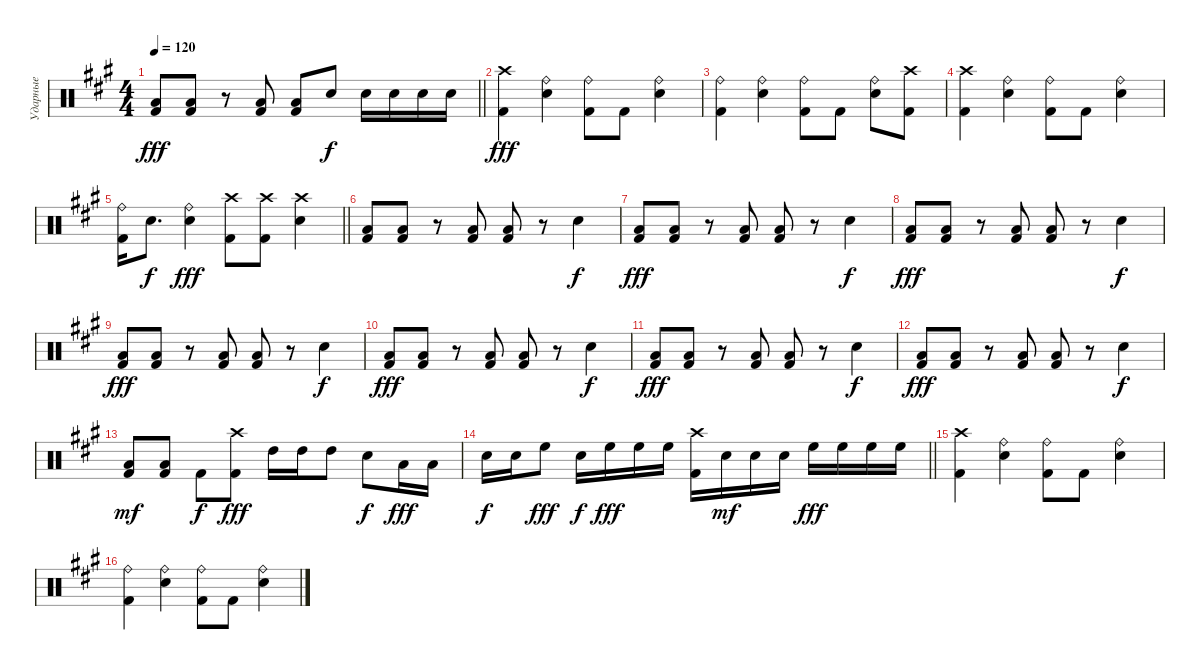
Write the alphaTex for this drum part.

\track ("Ударные" "Ударные") {instrument percussion}
\staff {score}
\articulation defaults
\ts (4 4)
\tempo 120
\clef neutral
\barLineRight lightlight
\ks a
("Kick (hit) 2" "Low Floor Tom (hit)").8{dy fff} ("Kick (hit) 2" "Low Floor Tom (hit)").8 r.8 ("Kick (hit) 2" "Low Floor Tom (hit)").8 ("Kick (hit) 2" "Low Floor Tom (hit)").8 "Snare (hit) 2".8{dy f} "Snare (hit) 2".16 "Snare (hit) 2".16 "Snare (hit) 2".16 "Snare (hit) 2".16 |
("Kick (hit) 2" "Crash high (hit)").4{dy fff} ("Snare (hit) 2" "Ride (bell)").4 ("Kick (hit) 2" "Ride (bell)").8 "Kick (hit) 2".8 ("Snare (hit) 2" "Ride (bell)").4 |
("Kick (hit) 2" "Ride (bell)").4 ("Snare (hit) 2" "Ride (bell)").4 ("Kick (hit) 2" "Ride (bell)").8 "Kick (hit) 2".8 ("Snare (hit) 2" "Ride (bell)").8 ("Kick (hit) 2" "Crash high (hit)").8 |
("Kick (hit) 2" "Crash high (hit)").4 ("Snare (hit) 2" "Ride (bell)").4 ("Kick (hit) 2" "Ride (bell)").8 "Kick (hit) 2".8 ("Snare (hit) 2" "Ride (bell)").4 |
\barLineRight lightlight
("Kick (hit) 2" "Ride (bell)").16 "Snare (hit) 2".8{d dy f} ("Snare (hit) 2" "Ride (bell)").4{dy fff} ("Kick (hit) 2" "Crash high (hit)").8 ("Kick (hit) 2" "Crash high (hit)").8 ("Snare (hit) 2" "Crash high (hit)").4 |
("Kick (hit) 2" "Low Floor Tom (hit)").8 ("Kick (hit) 2" "Low Floor Tom (hit)").8 r.8 ("Kick (hit) 2" "Low Floor Tom (hit)").8 ("Kick (hit) 2" "Low Floor Tom (hit)").8 r.8 "Snare (hit) 2".4{dy f} |
("Kick (hit) 2" "Low Floor Tom (hit)").8{dy fff} ("Kick (hit) 2" "Low Floor Tom (hit)").8 r.8 ("Kick (hit) 2" "Low Floor Tom (hit)").8 ("Kick (hit) 2" "Low Floor Tom (hit)").8 r.8 "Snare (hit) 2".4{dy f} |
("Kick (hit) 2" "Low Floor Tom (hit)").8{dy fff} ("Kick (hit) 2" "Low Floor Tom (hit)").8 r.8 ("Kick (hit) 2" "Low Floor Tom (hit)").8 ("Kick (hit) 2" "Low Floor Tom (hit)").8 r.8 "Snare (hit) 2".4{dy f} |
("Kick (hit) 2" "Low Floor Tom (hit)").8{dy fff} ("Kick (hit) 2" "Low Floor Tom (hit)").8 r.8 ("Kick (hit) 2" "Low Floor Tom (hit)").8 ("Kick (hit) 2" "Low Floor Tom (hit)").8 r.8 "Snare (hit) 2".4{dy f} |
("Kick (hit) 2" "Low Floor Tom (hit)").8{dy fff} ("Kick (hit) 2" "Low Floor Tom (hit)").8 r.8 ("Kick (hit) 2" "Low Floor Tom (hit)").8 ("Kick (hit) 2" "Low Floor Tom (hit)").8 r.8 "Snare (hit) 2".4{dy f} |
("Kick (hit) 2" "Low Floor Tom (hit)").8{dy fff} ("Kick (hit) 2" "Low Floor Tom (hit)").8 r.8 ("Kick (hit) 2" "Low Floor Tom (hit)").8 ("Kick (hit) 2" "Low Floor Tom (hit)").8 r.8 "Snare (hit) 2".4{dy f} |
("Kick (hit) 2" "Low Floor Tom (hit)").8{dy fff} ("Kick (hit) 2" "Low Floor Tom (hit)").8 r.8 ("Kick (hit) 2" "Low Floor Tom (hit)").8 ("Kick (hit) 2" "Low Floor Tom (hit)").8 r.8 "Snare (hit) 2".4{dy f} |
("Kick (hit) 2" "Low Floor Tom (hit)").8{dy mf} ("Kick (hit) 2" "Low Floor Tom (hit)").8 "Kick (hit) 2".8{dy f} ("Kick (hit) 2" "Crash high (hit)").8{dy fff} "High Tom (hit)".16 "High Tom (hit)".16 "High Tom (hit)".8 "Snare (hit) 2".8{dy f} "Low Tom (hit)".16{dy fff} "Low Tom (hit)".16 |
\barLineRight lightlight "Snare (hit) 2".16{dy f} "Snare (hit) 2".16 "High Floor Tom (hit)".8{dy fff} "Snare (hit) 2".16{dy f} "High Floor Tom (hit)".16{dy fff} "High Floor Tom (hit)".16 "High Floor Tom (hit)".16
("Kick (hit) 2" "Crash high (hit)").16 "Snare (hit) 2".16{dy mf} "Snare (hit) 2".16 "Snare (hit) 2".16 "High Floor Tom (hit)".16{dy fff} "High Floor Tom (hit)".16 "High Floor Tom (hit)".16 "High Floor Tom (hit)".16 |
("Kick (hit) 2" "Crash high (hit)").4 ("Snare (hit) 2" "Ride (bell)").4 ("Kick (hit) 2" "Ride (bell)").8 "Kick (hit) 2".8 ("Snare (hit) 2" "Ride (bell)").4 |
("Kick (hit) 2" "Ride (bell)").4 ("Snare (hit) 2" "Ride (bell)").4 ("Kick (hit) 2" "Ride (bell)").8 "Kick (hit) 2".8 ("Snare (hit) 2" "Ride (bell)").4
